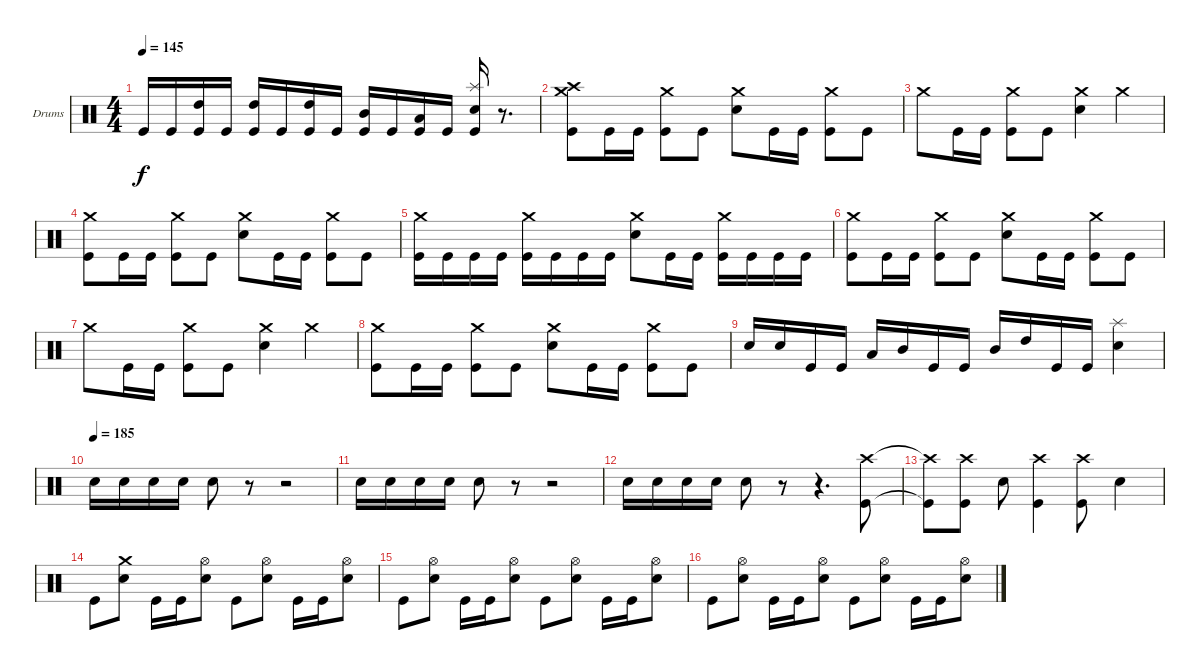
\bracketExtendMode groupsimilarinstruments
\firstSystemTrackNameOrientation horizontal
\otherSystemsTrackNameOrientation horizontal
\track ("Drumkit" "Drums") {instrument percussion}
\staff {score}
\articulation defaults
\ts (4 4)
\tempo 145
\clef neutral
\ks c "Kick (hit)".16{dy f} "Kick (hit)".16
("High Tom (hit)" "Kick (hit)").16 "Kick (hit)".16 ("High Tom (hit)" "Kick (hit)").16 "Kick (hit)".16 ("High Tom (hit)" "Kick (hit)").16 "Kick (hit)".16 ("Mid Tom (hit)" "Kick (hit)").16 "Kick (hit)".16 ("Low Tom (hit)" "Kick (hit)").16 "Kick (hit)".16 ("Splash (hit)" "Snare (hit) 2" "Kick (hit)").16 r.8{d} |
("Crash medium (hit)" "Crash high (hit)" "Kick (hit)").8 "Kick (hit)".16 "Kick (hit)".16 ("Crash medium (hit)" "Kick (hit)").8 "Kick (hit)".8 ("Crash medium (hit)" "Snare (hit) 2").8 "Kick (hit)".16 "Kick (hit)".16 ("Crash medium (hit)" "Kick (hit)").8 "Kick (hit)".8 |
"Crash medium (hit)".8 "Kick (hit)".16 "Kick (hit)".16 ("Crash medium (hit)" "Kick (hit)").8 "Kick (hit)".8 ("Crash medium (hit)" "Snare (hit) 2").4 "Crash medium (hit)".4 |
("Crash medium (hit)" "Kick (hit)").8 "Kick (hit)".16 "Kick (hit)".16 ("Crash medium (hit)" "Kick (hit)").8 "Kick (hit)".8 ("Crash medium (hit)" "Snare (hit) 2").8 "Kick (hit)".16 "Kick (hit)".16 ("Crash medium (hit)" "Kick (hit)").8 "Kick (hit)".8 |
("Crash medium (hit)" "Kick (hit)").16 "Kick (hit)".16 "Kick (hit)".16 "Kick (hit)".16 ("Crash medium (hit)" "Kick (hit)").16 "Kick (hit)".16 "Kick (hit)".16 "Kick (hit)".16 ("Crash medium (hit)" "Snare (hit) 2").8 "Kick (hit)".16 "Kick (hit)".16 ("Crash medium (hit)" "Kick (hit)").16 "Kick (hit)".16 "Kick (hit)".16 "Kick (hit)".16 |
("Crash medium (hit)" "Kick (hit)").8 "Kick (hit)".16 "Kick (hit)".16 ("Crash medium (hit)" "Kick (hit)").8 "Kick (hit)".8 ("Crash medium (hit)" "Snare (hit) 2").8 "Kick (hit)".16 "Kick (hit)".16 ("Crash medium (hit)" "Kick (hit)").8 "Kick (hit)".8 |
"Crash medium (hit)".8 "Kick (hit)".16 "Kick (hit)".16 ("Crash medium (hit)" "Kick (hit)").8 "Kick (hit)".8 ("Crash medium (hit)" "Snare (hit) 2").4 "Crash medium (hit)".4 |
("Crash medium (hit)" "Kick (hit)").8 "Kick (hit)".16 "Kick (hit)".16 ("Crash medium (hit)" "Kick (hit)").8 "Kick (hit)".8 ("Crash medium (hit)" "Snare (hit) 2").8 "Kick (hit)".16 "Kick (hit)".16 ("Crash medium (hit)" "Kick (hit)").8 "Kick (hit)".8 |
"Snare (hit) 2".16 "Snare (hit) 2".16 "Kick (hit)".16 "Kick (hit)".16 "Low Tom (hit)".16 "Mid Tom (hit)".16 "Kick (hit)".16 "Kick (hit)".16 "Mid Tom (hit)".16 "High Tom (hit)".16 "Kick (hit)".16 "Kick (hit)".16 ("Splash (hit)" "Snare (hit) 2").4 |
\tempo (185)
"Snare (hit) 2".16 "Snare (hit) 2".16 "Snare (hit) 2".16 "Snare (hit) 2".16 "Snare (hit) 2".8 r.8 r.2 |
"Snare (hit) 2".16 "Snare (hit) 2".16 "Snare (hit) 2".16 "Snare (hit) 2".16 "Snare (hit) 2".8 r.8 r.2 |
"Snare (hit) 2".16 "Snare (hit) 2".16 "Snare (hit) 2".16 "Snare (hit) 2".16 "Snare (hit) 2".8 r.8 r.4{d} ("Crash high (hit)" "Kick (hit)").8 |
("Crash high (hit)"{t} "Kick (hit)"{t}).8 ("Crash high (hit)" "Kick (hit)").8 "Snare (hit) 2".8 ("Crash high (hit)" "Kick (hit)").4 ("Crash high (hit)" "Kick (hit)").8 "Snare (hit) 2".4 |
"Kick (hit)".8 ("Crash medium (hit)" "Snare (hit) 2").8 "Kick (hit)".16 "Kick (hit)".16 ("Hi-Hat (open)" "Snare (hit) 2").8 "Kick (hit)".8 ("Hi-Hat (open)" "Snare (hit) 2").8 "Kick (hit)".16 "Kick (hit)".16 ("Hi-Hat (open)" "Snare (hit) 2").8 |
"Kick (hit)".8 ("Hi-Hat (open)" "Snare (hit) 2").8 "Kick (hit)".16 "Kick (hit)".16 ("Hi-Hat (open)" "Snare (hit) 2").8 "Kick (hit)".8 ("Hi-Hat (open)" "Snare (hit) 2").8 "Kick (hit)".16 "Kick (hit)".16 ("Hi-Hat (open)" "Snare (hit) 2").8 |
"Kick (hit)".8 ("Hi-Hat (open)" "Snare (hit) 2").8 "Kick (hit)".16 "Kick (hit)".16 ("Hi-Hat (open)" "Snare (hit) 2").8 "Kick (hit)".8 ("Hi-Hat (open)" "Snare (hit) 2").8 "Kick (hit)".16 "Kick (hit)".16 ("Hi-Hat (open)" "Snare (hit) 2").8
